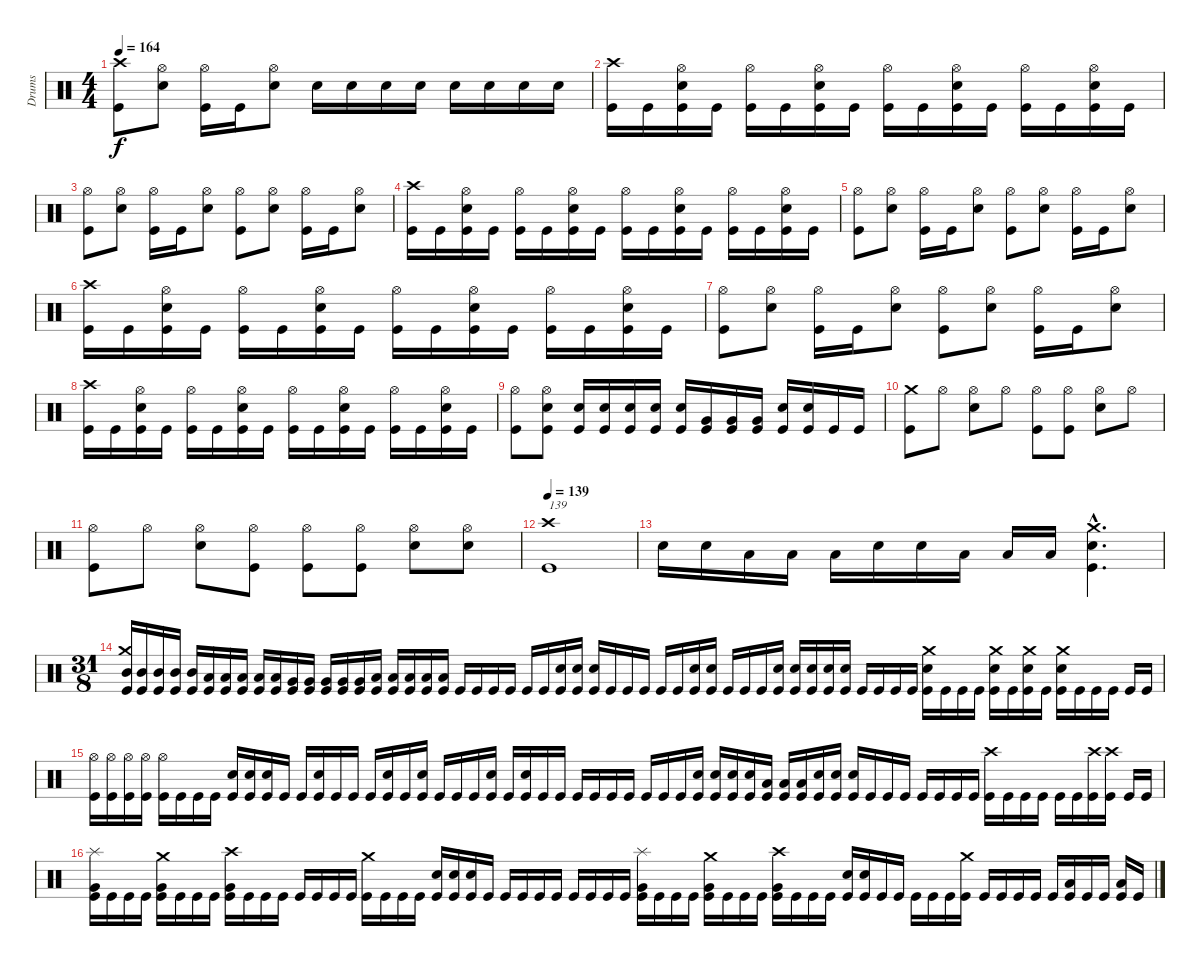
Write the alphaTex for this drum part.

\track ("Drums" "Drums") {instrument percussion}
\staff {score}
\articulation defaults
\ts (4 4)
\tempo 164
\clef neutral
\ks c
("Crash high (hit)" "Kick (hit)").8{dy f} ("Hi-Hat (open)" "Snare (hit) 2").8 ("Hi-Hat (open)" "Kick (hit)").16 "Kick (hit)".16 ("Hi-Hat (open)" "Snare (hit) 2").8 "Snare (hit) 2".16 "Snare (hit) 2".16 "Snare (hit) 2".16 "Snare (hit) 2".16 "Snare (hit) 2".16 "Snare (hit) 2".16 "Snare (hit) 2".16 "Snare (hit) 2".16 |
("Crash high (hit)" "Kick (hit)").16 "Kick (hit)".16 ("Hi-Hat (open)" "Snare (hit) 2" "Kick (hit)").16 "Kick (hit)".16 ("Hi-Hat (open)" "Kick (hit)").16 "Kick (hit)".16 ("Hi-Hat (open)" "Snare (hit) 2" "Kick (hit)").16 "Kick (hit)".16 ("Hi-Hat (open)" "Kick (hit)").16 "Kick (hit)".16 ("Hi-Hat (open)" "Snare (hit) 2" "Kick (hit)").16 "Kick (hit)".16 ("Hi-Hat (open)" "Kick (hit)").16 "Kick (hit)".16 ("Hi-Hat (open)" "Snare (hit) 2" "Kick (hit)").16 "Kick (hit)".16 |
("Hi-Hat (open)" "Kick (hit)").8 ("Hi-Hat (open)" "Snare (hit) 2").8 ("Hi-Hat (open)" "Kick (hit)").16 "Kick (hit)".16 ("Hi-Hat (open)" "Snare (hit) 2").8 ("Hi-Hat (open)" "Kick (hit)").8 ("Hi-Hat (open)" "Snare (hit) 2").8 ("Hi-Hat (open)" "Kick (hit)").16 "Kick (hit)".16 ("Hi-Hat (open)" "Snare (hit) 2").8 |
("Crash high (hit)" "Kick (hit)").16 "Kick (hit)".16 ("Hi-Hat (open)" "Snare (hit) 2" "Kick (hit)").16 "Kick (hit)".16 ("Hi-Hat (open)" "Kick (hit)").16 "Kick (hit)".16 ("Hi-Hat (open)" "Snare (hit) 2" "Kick (hit)").16 "Kick (hit)".16 ("Hi-Hat (open)" "Kick (hit)").16 "Kick (hit)".16 ("Hi-Hat (open)" "Snare (hit) 2" "Kick (hit)").16 "Kick (hit)".16 ("Hi-Hat (open)" "Kick (hit)").16 "Kick (hit)".16 ("Hi-Hat (open)" "Snare (hit) 2" "Kick (hit)").16 "Kick (hit)".16 |
("Hi-Hat (open)" "Kick (hit)").8 ("Hi-Hat (open)" "Snare (hit) 2").8 ("Hi-Hat (open)" "Kick (hit)").16 "Kick (hit)".16 ("Hi-Hat (open)" "Snare (hit) 2").8 ("Hi-Hat (open)" "Kick (hit)").8 ("Hi-Hat (open)" "Snare (hit) 2").8 ("Hi-Hat (open)" "Kick (hit)").16 "Kick (hit)".16 ("Hi-Hat (open)" "Snare (hit) 2").8 |
("Crash high (hit)" "Kick (hit)").16 "Kick (hit)".16 ("Hi-Hat (open)" "Snare (hit) 2" "Kick (hit)").16 "Kick (hit)".16 ("Hi-Hat (open)" "Kick (hit)").16 "Kick (hit)".16 ("Hi-Hat (open)" "Snare (hit) 2" "Kick (hit)").16 "Kick (hit)".16 ("Hi-Hat (open)" "Kick (hit)").16 "Kick (hit)".16 ("Hi-Hat (open)" "Snare (hit) 2" "Kick (hit)").16 "Kick (hit)".16 ("Hi-Hat (open)" "Kick (hit)").16 "Kick (hit)".16 ("Hi-Hat (open)" "Snare (hit) 2" "Kick (hit)").16 "Kick (hit)".16 |
("Hi-Hat (open)" "Kick (hit)").8 ("Hi-Hat (open)" "Snare (hit) 2").8 ("Hi-Hat (open)" "Kick (hit)").16 "Kick (hit)".16 ("Hi-Hat (open)" "Snare (hit) 2").8 ("Hi-Hat (open)" "Kick (hit)").8 ("Hi-Hat (open)" "Snare (hit) 2").8 ("Hi-Hat (open)" "Kick (hit)").16 "Kick (hit)".16 ("Hi-Hat (open)" "Snare (hit) 2").8 |
("Crash high (hit)" "Kick (hit)").16 "Kick (hit)".16 ("Hi-Hat (open)" "Snare (hit) 2" "Kick (hit)").16 "Kick (hit)".16 ("Hi-Hat (open)" "Kick (hit)").16 "Kick (hit)".16 ("Hi-Hat (open)" "Snare (hit) 2" "Kick (hit)").16 "Kick (hit)".16 ("Hi-Hat (open)" "Kick (hit)").16 "Kick (hit)".16 ("Hi-Hat (open)" "Snare (hit) 2" "Kick (hit)").16 "Kick (hit)".16 ("Hi-Hat (open)" "Kick (hit)").16 "Kick (hit)".16 ("Hi-Hat (open)" "Snare (hit) 2" "Kick (hit)").16 "Kick (hit)".16 |
("Hi-Hat (open)" "Kick (hit)").8 ("Hi-Hat (open)" "Snare (hit) 2" "Kick (hit)").8 ("Snare (hit) 2" "Kick (hit)").16 ("Snare (hit) 2" "Kick (hit)").16 ("Snare (hit) 2" "Kick (hit)").16 ("Snare (hit) 2" "Kick (hit)").16 ("Snare (hit) 2" "Kick (hit)").16 ("Very Low Tom (hit)" "Kick (hit)").16 ("Very Low Tom (hit)" "Kick (hit)").16 ("Very Low Tom (hit)" "Kick (hit)").16 ("Snare (hit) 2" "Kick (hit)").16 ("Snare (hit) 2" "Kick (hit)").16 "Kick (hit)".16 "Kick (hit)".16 |
("Crash medium (hit)" "Kick (hit)").8 "Hi-Hat (open)".8 ("Hi-Hat (open)" "Snare (hit) 2").8 "Hi-Hat (open)".8 ("Hi-Hat (open)" "Kick (hit)").8 ("Hi-Hat (open)" "Kick (hit)").8 ("Hi-Hat (open)" "Snare (hit) 2").8 "Hi-Hat (open)".8 |
("Hi-Hat (open)" "Kick (hit)").8 "Hi-Hat (open)".8 ("Hi-Hat (open)" "Snare (hit) 2").8 ("Hi-Hat (open)" "Kick (hit)").8 ("Hi-Hat (open)" "Kick (hit)").8 ("Hi-Hat (open)" "Kick (hit)").8 ("Hi-Hat (open)" "Snare (hit) 2").8 ("Hi-Hat (open)" "Snare (hit) 2").8 |
\tempo 139
("Crash high (hit)" "Kick (hit)").1{txt "139" volume 6} |
"Snare (hit) 2".16 "Snare (hit) 2".16 "Low Floor Tom (hit)".16 "Low Floor Tom (hit)".16 "Low Floor Tom (hit)".16 "Snare (hit) 2".16 "Snare (hit) 2".16 "Low Floor Tom (hit)".16 "Low Floor Tom (hit)".16 "Low Floor Tom (hit)".16 ("Crash medium (hit)"{hac} "Snare (hit) 2"{hac} "Kick (hit)"{hac}).4{d} |
\ts (31 8)
("Crash medium (hit)" "Mid Tom (hit)" "Kick (hit)").16 ("Mid Tom (hit)" "Kick (hit)").16 ("Mid Tom (hit)" "Kick (hit)").16 ("Mid Tom (hit)" "Kick (hit)").16 ("Mid Tom (hit)" "Kick (hit)").16 ("Low Tom (hit)" "Kick (hit)").16 ("Low Tom (hit)" "Kick (hit)").16 ("Low Tom (hit)" "Kick (hit)").16 ("Low Tom (hit)" "Kick (hit)").16 ("Low Tom (hit)" "Kick (hit)").16 ("Very Low Tom (hit)" "Kick (hit)").16 ("Very Low Tom (hit)" "Kick (hit)").16 ("Very Low Tom (hit)" "Kick (hit)").16 ("Very Low Tom (hit)" "Kick (hit)").16 ("Very Low Tom (hit)" "Kick (hit)").16 ("Low Floor Tom (hit)" "Kick (hit)").16 ("Low Floor Tom (hit)" "Kick (hit)").16 ("Low Floor Tom (hit)" "Kick (hit)").16 ("Low Floor Tom (hit)" "Kick (hit)").16 ("Low Floor Tom (hit)" "Kick (hit)").16 "Kick (hit)".16 "Kick (hit)".16 "Kick (hit)".16 "Kick (hit)".16 "Kick (hit)".16 "Kick (hit)".16 ("Snare (hit) 2" "Kick (hit)").16 ("Snare (hit) 2" "Kick (hit)").16 ("Snare (hit) 2" "Kick (hit)").16 "Kick (hit)".16 "Kick (hit)".16 "Kick (hit)".16 "Kick (hit)".16 "Kick (hit)".16 ("Snare (hit) 2" "Kick (hit)").16 ("Snare (hit) 2" "Kick (hit)").16 "Kick (hit)".16 "Kick (hit)".16 "Kick (hit)".16 ("Snare (hit) 2" "Kick (hit)").16 ("Snare (hit) 2" "Kick (hit)").16 ("Snare (hit) 2" "Kick (hit)").16 ("Snare (hit) 2" "Kick (hit)").16 ("Snare (hit) 2" "Kick (hit)").16 "Kick (hit)".16 "Kick (hit)".16 "Kick (hit)".16 "Kick (hit)".16 ("Crash medium (hit)" "Snare (hit) 2" "Kick (hit)").16 "Kick (hit)".16 "Kick (hit)".16 "Kick (hit)".16 ("Crash medium (hit)" "Snare (hit) 2" "Kick (hit)").16 "Kick (hit)".16 ("Crash medium (hit)" "Snare (hit) 2" "Kick (hit)").16 "Kick (hit)".16 ("Crash medium (hit)" "Snare (hit) 2" "Kick (hit)").16 "Kick (hit)".16 "Kick (hit)".16 "Kick (hit)".16 "Kick (hit)".16 "Kick (hit)".16 |
("Hi-Hat (open)" "Kick (hit)").16 ("Hi-Hat (open)" "Kick (hit)").16 ("Hi-Hat (open)" "Kick (hit)").16 ("Hi-Hat (open)" "Kick (hit)").16 ("Hi-Hat (open)" "Kick (hit)").16 "Kick (hit)".16 "Kick (hit)".16 "Kick (hit)".16 ("Snare (hit) 2" "Kick (hit)").16 ("Snare (hit) 2" "Kick (hit)").16 ("Snare (hit) 2" "Kick (hit)").16 "Kick (hit)".16 "Kick (hit)".16 ("Snare (hit) 2" "Kick (hit)").16 "Kick (hit)".16 "Kick (hit)".16 "Kick (hit)".16 ("Snare (hit) 2" "Kick (hit)").16 "Kick (hit)".16 ("Snare (hit) 2" "Kick (hit)").16 "Kick (hit)".16 "Kick (hit)".16 "Kick (hit)".16 ("Snare (hit) 2" "Kick (hit)").16 "Kick (hit)".16 ("Snare (hit) 2" "Kick (hit)").16 "Kick (hit)".16 "Kick (hit)".16 "Kick (hit)".16 "Kick (hit)".16 "Kick (hit)".16 "Kick (hit)".16 "Kick (hit)".16 "Kick (hit)".16 "Kick (hit)".16 ("Snare (hit) 2" "Kick (hit)").16 ("Snare (hit) 2" "Kick (hit)").16 ("Snare (hit) 2" "Kick (hit)").16 ("Snare (hit) 2" "Kick (hit)").16 ("Low Tom (hit)" "Kick (hit)").16 ("Low Tom (hit)" "Kick (hit)").16 ("Low Tom (hit)" "Kick (hit)").16 ("Snare (hit) 2" "Kick (hit)").16 ("Snare (hit) 2" "Kick (hit)").16 ("Snare (hit) 2" "Kick (hit)").16 "Kick (hit)".16 "Kick (hit)".16 "Kick (hit)".16 "Kick (hit)".16 "Kick (hit)".16 "Kick (hit)".16 "Kick (hit)".16 ("Crash high (hit)" "Kick (hit)").16 "Kick (hit)".16 "Kick (hit)".16 "Kick (hit)".16 "Kick (hit)".16 "Kick (hit)".16 ("Crash high (hit)" "Kick (hit)").16 ("Crash high (hit)" "Kick (hit)").16 "Kick (hit)".16 "Kick (hit)".16 |
("Splash (hit)" "Very Low Tom (hit)" "Kick (hit)").16 "Kick (hit)".16 "Kick (hit)".16 "Kick (hit)".16 ("Crash medium (hit)" "Very Low Tom (hit)" "Kick (hit)").16 "Kick (hit)".16 "Kick (hit)".16 "Kick (hit)".16 ("Crash high (hit)" "Very Low Tom (hit)" "Kick (hit)").16 "Kick (hit)".16 "Kick (hit)".16 "Kick (hit)".16 "Kick (hit)".16 "Kick (hit)".16 "Kick (hit)".16 "Kick (hit)".16 ("Crash medium (hit)" "Kick (hit)").16 "Kick (hit)".16 "Kick (hit)".16 "Kick (hit)".16 ("Snare (hit) 2" "Kick (hit)").16 ("Snare (hit) 2" "Kick (hit)").16 ("Snare (hit) 2" "Kick (hit)").16 "Kick (hit)".16 "Kick (hit)".16 "Kick (hit)".16 "Kick (hit)".16 "Kick (hit)".16 "Kick (hit)".16 "Kick (hit)".16 "Kick (hit)".16 "Kick (hit)".16 ("Splash (hit)" "Very Low Tom (hit)" "Kick (hit)").16 "Kick (hit)".16 "Kick (hit)".16 "Kick (hit)".16 ("Crash medium (hit)" "Very Low Tom (hit)" "Kick (hit)").16 "Kick (hit)".16 "Kick (hit)".16 "Kick (hit)".16 ("Crash high (hit)" "Very Low Tom (hit)" "Kick (hit)").16 "Kick (hit)".16 "Kick (hit)".16 "Kick (hit)".16 ("Snare (hit) 2" "Kick (hit)").16 ("Snare (hit) 2" "Kick (hit)").16 "Kick (hit)".16 "Kick (hit)".16 "Kick (hit)".16 "Kick (hit)".16 "Kick (hit)".16 ("Crash medium (hit)" "Kick (hit)").16 "Kick (hit)".16 "Kick (hit)".16 "Kick (hit)".16 "Kick (hit)".16 "Kick (hit)".16 ("Low Floor Tom (hit)" "Kick (hit)").16 "Kick (hit)".16 "Kick (hit)".16 ("Low Floor Tom (hit)" "Kick (hit)").16 "Kick (hit)".16
